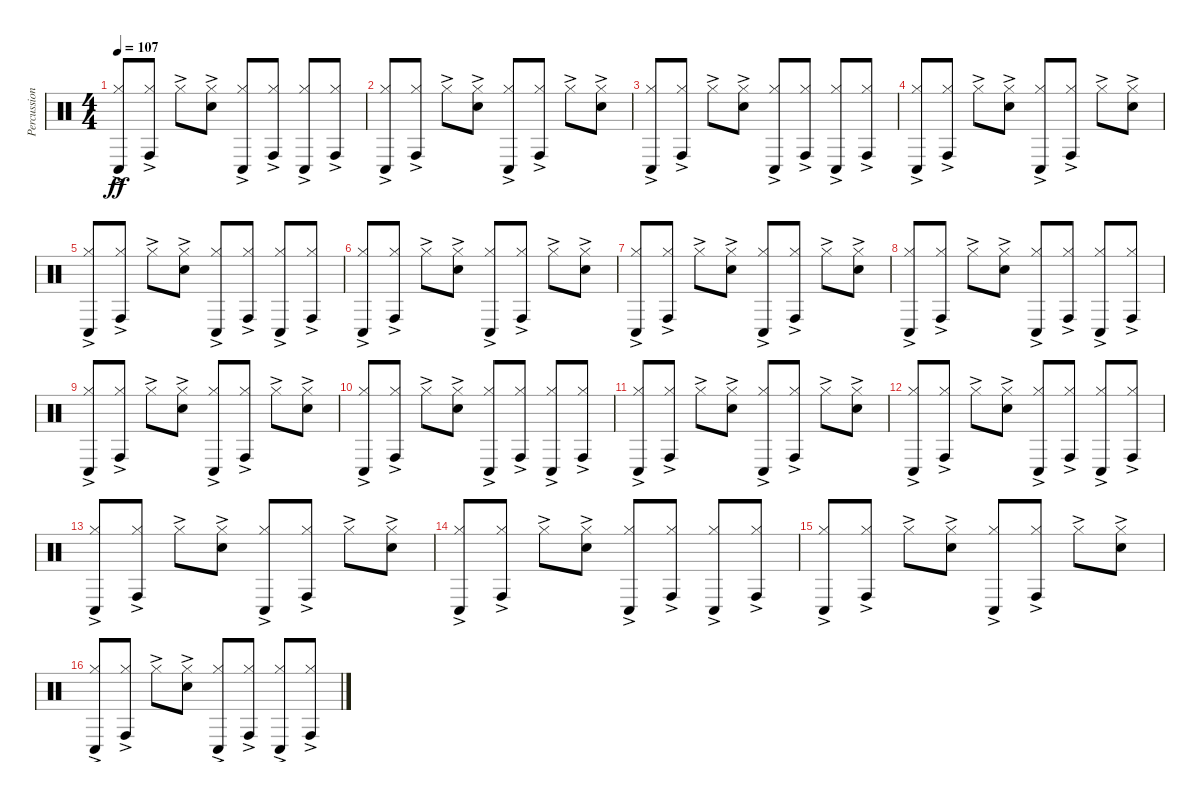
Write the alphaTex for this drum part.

\track ("Percussion" "Percussion") {instrument percussion}
\staff {score}
\articulation defaults
\ts (4 4)
\tempo 107
\clef neutral
\ks c
("Hi-Hat (closed)"{ac} "Conga low (hit)"{ac}).8{dy ff} ("Hi-Hat (closed)"{ac} "Conga high (hit)"{ac}).8 "Hi-Hat (closed)"{ac}.8 ("Hi-Hat (closed)"{ac} "Hand Clap (hit)"{ac}).8 ("Hi-Hat (closed)"{ac} "Conga low (hit)"{ac}).8 ("Hi-Hat (closed)"{ac} "Conga high (hit)"{ac}).8 ("Hi-Hat (closed)"{ac} "Conga low (hit)"{ac}).8 ("Hi-Hat (closed)"{ac} "Conga high (hit)"{ac}).8 |
("Hi-Hat (closed)"{ac} "Conga low (hit)"{ac}).8 ("Hi-Hat (closed)"{ac} "Conga high (hit)"{ac}).8 "Hi-Hat (closed)"{ac}.8 ("Hi-Hat (closed)"{ac} "Hand Clap (hit)"{ac}).8 ("Hi-Hat (closed)"{ac} "Conga low (hit)"{ac}).8 ("Hi-Hat (closed)"{ac} "Conga high (hit)"{ac}).8 "Hi-Hat (closed)"{ac}.8 ("Hi-Hat (closed)"{ac} "Hand Clap (hit)"{ac}).8 |
("Hi-Hat (closed)"{ac} "Conga low (hit)"{ac}).8 ("Hi-Hat (closed)"{ac} "Conga high (hit)"{ac}).8 "Hi-Hat (closed)"{ac}.8 ("Hi-Hat (closed)"{ac} "Hand Clap (hit)"{ac}).8 ("Hi-Hat (closed)"{ac} "Conga low (hit)"{ac}).8 ("Hi-Hat (closed)"{ac} "Conga high (hit)"{ac}).8 ("Hi-Hat (closed)"{ac} "Conga low (hit)"{ac}).8 ("Hi-Hat (closed)"{ac} "Conga high (hit)"{ac}).8 |
("Hi-Hat (closed)"{ac} "Conga low (hit)"{ac}).8 ("Hi-Hat (closed)"{ac} "Conga high (hit)"{ac}).8 "Hi-Hat (closed)"{ac}.8 ("Hi-Hat (closed)"{ac} "Hand Clap (hit)"{ac}).8 ("Hi-Hat (closed)"{ac} "Conga low (hit)"{ac}).8 ("Hi-Hat (closed)"{ac} "Conga high (hit)"{ac}).8 "Hi-Hat (closed)"{ac}.8 ("Hi-Hat (closed)"{ac} "Hand Clap (hit)"{ac}).8 |
("Hi-Hat (closed)"{ac} "Conga low (hit)"{ac}).8 ("Hi-Hat (closed)"{ac} "Conga high (hit)"{ac}).8 "Hi-Hat (closed)"{ac}.8 ("Hi-Hat (closed)"{ac} "Hand Clap (hit)"{ac}).8 ("Hi-Hat (closed)"{ac} "Conga low (hit)"{ac}).8 ("Hi-Hat (closed)"{ac} "Conga high (hit)"{ac}).8 ("Hi-Hat (closed)"{ac} "Conga low (hit)"{ac}).8 ("Hi-Hat (closed)"{ac} "Conga high (hit)"{ac}).8 |
("Hi-Hat (closed)"{ac} "Conga low (hit)"{ac}).8 ("Hi-Hat (closed)"{ac} "Conga high (hit)"{ac}).8 "Hi-Hat (closed)"{ac}.8 ("Hi-Hat (closed)"{ac} "Hand Clap (hit)"{ac}).8 ("Hi-Hat (closed)"{ac} "Conga low (hit)"{ac}).8 ("Hi-Hat (closed)"{ac} "Conga high (hit)"{ac}).8 "Hi-Hat (closed)"{ac}.8 ("Hi-Hat (closed)"{ac} "Hand Clap (hit)"{ac}).8 |
("Hi-Hat (closed)"{ac} "Conga low (hit)"{ac}).8 ("Hi-Hat (closed)"{ac} "Conga high (hit)"{ac}).8 "Hi-Hat (closed)"{ac}.8 ("Hi-Hat (closed)"{ac} "Hand Clap (hit)"{ac}).8 ("Hi-Hat (closed)"{ac} "Conga low (hit)"{ac}).8 ("Hi-Hat (closed)"{ac} "Conga high (hit)"{ac}).8 "Hi-Hat (closed)"{ac}.8 ("Hi-Hat (closed)"{ac} "Hand Clap (hit)"{ac}).8 |
("Hi-Hat (closed)"{ac} "Conga low (hit)"{ac}).8 ("Hi-Hat (closed)"{ac} "Conga high (hit)"{ac}).8 "Hi-Hat (closed)"{ac}.8 ("Hi-Hat (closed)"{ac} "Hand Clap (hit)"{ac}).8 ("Hi-Hat (closed)"{ac} "Conga low (hit)"{ac}).8 ("Hi-Hat (closed)"{ac} "Conga high (hit)"{ac}).8 ("Hi-Hat (closed)"{ac} "Conga low (hit)"{ac}).8 ("Hi-Hat (closed)"{ac} "Conga high (hit)"{ac}).8 |
("Hi-Hat (closed)"{ac} "Conga low (hit)"{ac}).8 ("Hi-Hat (closed)"{ac} "Conga high (hit)"{ac}).8 "Hi-Hat (closed)"{ac}.8 ("Hi-Hat (closed)"{ac} "Hand Clap (hit)"{ac}).8 ("Hi-Hat (closed)"{ac} "Conga low (hit)"{ac}).8 ("Hi-Hat (closed)"{ac} "Conga high (hit)"{ac}).8 "Hi-Hat (closed)"{ac}.8 ("Hi-Hat (closed)"{ac} "Hand Clap (hit)"{ac}).8 |
("Hi-Hat (closed)"{ac} "Conga low (hit)"{ac}).8 ("Hi-Hat (closed)"{ac} "Conga high (hit)"{ac}).8 "Hi-Hat (closed)"{ac}.8 ("Hi-Hat (closed)"{ac} "Hand Clap (hit)"{ac}).8 ("Hi-Hat (closed)"{ac} "Conga low (hit)"{ac}).8 ("Hi-Hat (closed)"{ac} "Conga high (hit)"{ac}).8 ("Hi-Hat (closed)"{ac} "Conga low (hit)"{ac}).8 ("Hi-Hat (closed)"{ac} "Conga high (hit)"{ac}).8 |
("Hi-Hat (closed)"{ac} "Conga low (hit)"{ac}).8 ("Hi-Hat (closed)"{ac} "Conga high (hit)"{ac}).8 "Hi-Hat (closed)"{ac}.8 ("Hi-Hat (closed)"{ac} "Hand Clap (hit)"{ac}).8 ("Hi-Hat (closed)"{ac} "Conga low (hit)"{ac}).8 ("Hi-Hat (closed)"{ac} "Conga high (hit)"{ac}).8 "Hi-Hat (closed)"{ac}.8 ("Hi-Hat (closed)"{ac} "Hand Clap (hit)"{ac}).8 |
("Hi-Hat (closed)"{ac} "Conga low (hit)"{ac}).8 ("Hi-Hat (closed)"{ac} "Conga high (hit)"{ac}).8 "Hi-Hat (closed)"{ac}.8 ("Hi-Hat (closed)"{ac} "Hand Clap (hit)"{ac}).8 ("Hi-Hat (closed)"{ac} "Conga low (hit)"{ac}).8 ("Hi-Hat (closed)"{ac} "Conga high (hit)"{ac}).8 ("Hi-Hat (closed)"{ac} "Conga low (hit)"{ac}).8 ("Hi-Hat (closed)"{ac} "Conga high (hit)"{ac}).8 |
("Hi-Hat (closed)"{ac} "Conga low (hit)"{ac}).8 ("Hi-Hat (closed)"{ac} "Conga high (hit)"{ac}).8 "Hi-Hat (closed)"{ac}.8 ("Hi-Hat (closed)"{ac} "Hand Clap (hit)"{ac}).8 ("Hi-Hat (closed)"{ac} "Conga low (hit)"{ac}).8 ("Hi-Hat (closed)"{ac} "Conga high (hit)"{ac}).8 "Hi-Hat (closed)"{ac}.8 ("Hi-Hat (closed)"{ac} "Hand Clap (hit)"{ac}).8 |
("Hi-Hat (closed)"{ac} "Conga low (hit)"{ac}).8 ("Hi-Hat (closed)"{ac} "Conga high (hit)"{ac}).8 "Hi-Hat (closed)"{ac}.8 ("Hi-Hat (closed)"{ac} "Hand Clap (hit)"{ac}).8 ("Hi-Hat (closed)"{ac} "Conga low (hit)"{ac}).8 ("Hi-Hat (closed)"{ac} "Conga high (hit)"{ac}).8 ("Hi-Hat (closed)"{ac} "Conga low (hit)"{ac}).8 ("Hi-Hat (closed)"{ac} "Conga high (hit)"{ac}).8 |
("Hi-Hat (closed)"{ac} "Conga low (hit)"{ac}).8 ("Hi-Hat (closed)"{ac} "Conga high (hit)"{ac}).8 "Hi-Hat (closed)"{ac}.8 ("Hi-Hat (closed)"{ac} "Hand Clap (hit)"{ac}).8 ("Hi-Hat (closed)"{ac} "Conga low (hit)"{ac}).8 ("Hi-Hat (closed)"{ac} "Conga high (hit)"{ac}).8 "Hi-Hat (closed)"{ac}.8 ("Hi-Hat (closed)"{ac} "Hand Clap (hit)"{ac}).8 |
("Hi-Hat (closed)"{ac} "Conga low (hit)"{ac}).8 ("Hi-Hat (closed)"{ac} "Conga high (hit)"{ac}).8 "Hi-Hat (closed)"{ac}.8 ("Hi-Hat (closed)"{ac} "Hand Clap (hit)"{ac}).8 ("Hi-Hat (closed)"{ac} "Conga low (hit)"{ac}).8 ("Hi-Hat (closed)"{ac} "Conga high (hit)"{ac}).8 ("Hi-Hat (closed)"{ac} "Conga low (hit)"{ac}).8 ("Hi-Hat (closed)"{ac} "Conga high (hit)"{ac}).8
